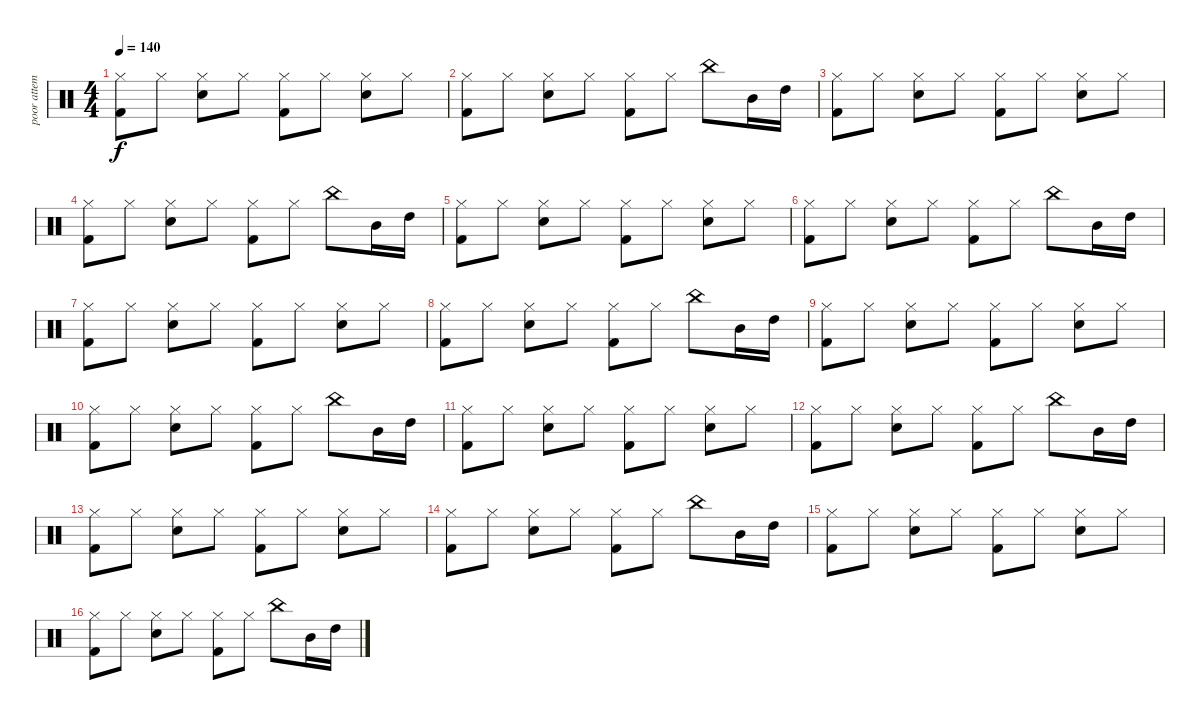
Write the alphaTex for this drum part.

\track ("poor attempt at zac's part" "poor attem") {instrument percussion}
\staff {score}
\articulation defaults
\ts (4 4)
\tempo 140
\clef neutral
\ks c
("Kick (hit) 2" "Hi-Hat (closed)").8{dy f} "Hi-Hat (closed)".8 ("Snare (hit) 2" "Hi-Hat (closed)").8 "Hi-Hat (closed)".8 ("Kick (hit) 2" "Hi-Hat (closed)").8 "Hi-Hat (closed)".8 ("Snare (hit) 2" "Hi-Hat (closed)").8 "Hi-Hat (closed)".8 |
("Kick (hit) 2" "Hi-Hat (closed)").8 "Hi-Hat (closed)".8 ("Snare (hit) 2" "Hi-Hat (closed)").8 "Hi-Hat (closed)".8 ("Kick (hit) 2" "Hi-Hat (closed)").8 "Hi-Hat (closed)".8 "China (hit)".8 "Mid Tom (hit)".16 "High Tom (hit)".16 |
("Kick (hit) 2" "Hi-Hat (closed)").8 "Hi-Hat (closed)".8 ("Snare (hit) 2" "Hi-Hat (closed)").8 "Hi-Hat (closed)".8 ("Kick (hit) 2" "Hi-Hat (closed)").8 "Hi-Hat (closed)".8 ("Snare (hit) 2" "Hi-Hat (closed)").8 "Hi-Hat (closed)".8 |
("Kick (hit) 2" "Hi-Hat (closed)").8 "Hi-Hat (closed)".8 ("Snare (hit) 2" "Hi-Hat (closed)").8 "Hi-Hat (closed)".8 ("Kick (hit) 2" "Hi-Hat (closed)").8 "Hi-Hat (closed)".8 "China (hit)".8 "Mid Tom (hit)".16 "High Tom (hit)".16 |
("Kick (hit) 2" "Hi-Hat (closed)").8 "Hi-Hat (closed)".8 ("Snare (hit) 2" "Hi-Hat (closed)").8 "Hi-Hat (closed)".8 ("Kick (hit) 2" "Hi-Hat (closed)").8 "Hi-Hat (closed)".8 ("Snare (hit) 2" "Hi-Hat (closed)").8 "Hi-Hat (closed)".8 |
("Kick (hit) 2" "Hi-Hat (closed)").8 "Hi-Hat (closed)".8 ("Snare (hit) 2" "Hi-Hat (closed)").8 "Hi-Hat (closed)".8 ("Kick (hit) 2" "Hi-Hat (closed)").8 "Hi-Hat (closed)".8 "China (hit)".8 "Mid Tom (hit)".16 "High Tom (hit)".16 |
("Kick (hit) 2" "Hi-Hat (closed)").8 "Hi-Hat (closed)".8 ("Snare (hit) 2" "Hi-Hat (closed)").8 "Hi-Hat (closed)".8 ("Kick (hit) 2" "Hi-Hat (closed)").8 "Hi-Hat (closed)".8 ("Snare (hit) 2" "Hi-Hat (closed)").8 "Hi-Hat (closed)".8 |
("Kick (hit) 2" "Hi-Hat (closed)").8 "Hi-Hat (closed)".8 ("Snare (hit) 2" "Hi-Hat (closed)").8 "Hi-Hat (closed)".8 ("Kick (hit) 2" "Hi-Hat (closed)").8 "Hi-Hat (closed)".8 "China (hit)".8 "Mid Tom (hit)".16 "High Tom (hit)".16 |
("Kick (hit) 2" "Hi-Hat (closed)").8 "Hi-Hat (closed)".8 ("Snare (hit) 2" "Hi-Hat (closed)").8 "Hi-Hat (closed)".8 ("Kick (hit) 2" "Hi-Hat (closed)").8 "Hi-Hat (closed)".8 ("Snare (hit) 2" "Hi-Hat (closed)").8 "Hi-Hat (closed)".8 |
("Kick (hit) 2" "Hi-Hat (closed)").8 "Hi-Hat (closed)".8 ("Snare (hit) 2" "Hi-Hat (closed)").8 "Hi-Hat (closed)".8 ("Kick (hit) 2" "Hi-Hat (closed)").8 "Hi-Hat (closed)".8 "China (hit)".8 "Mid Tom (hit)".16 "High Tom (hit)".16 |
("Kick (hit) 2" "Hi-Hat (closed)").8 "Hi-Hat (closed)".8 ("Snare (hit) 2" "Hi-Hat (closed)").8 "Hi-Hat (closed)".8 ("Kick (hit) 2" "Hi-Hat (closed)").8 "Hi-Hat (closed)".8 ("Snare (hit) 2" "Hi-Hat (closed)").8 "Hi-Hat (closed)".8 |
("Kick (hit) 2" "Hi-Hat (closed)").8 "Hi-Hat (closed)".8 ("Snare (hit) 2" "Hi-Hat (closed)").8 "Hi-Hat (closed)".8 ("Kick (hit) 2" "Hi-Hat (closed)").8 "Hi-Hat (closed)".8 "China (hit)".8 "Mid Tom (hit)".16 "High Tom (hit)".16 |
("Kick (hit) 2" "Hi-Hat (closed)").8 "Hi-Hat (closed)".8 ("Snare (hit) 2" "Hi-Hat (closed)").8 "Hi-Hat (closed)".8 ("Kick (hit) 2" "Hi-Hat (closed)").8 "Hi-Hat (closed)".8 ("Snare (hit) 2" "Hi-Hat (closed)").8 "Hi-Hat (closed)".8 |
("Kick (hit) 2" "Hi-Hat (closed)").8 "Hi-Hat (closed)".8 ("Snare (hit) 2" "Hi-Hat (closed)").8 "Hi-Hat (closed)".8 ("Kick (hit) 2" "Hi-Hat (closed)").8 "Hi-Hat (closed)".8 "China (hit)".8 "Mid Tom (hit)".16 "High Tom (hit)".16 |
("Kick (hit) 2" "Hi-Hat (closed)").8 "Hi-Hat (closed)".8 ("Snare (hit) 2" "Hi-Hat (closed)").8 "Hi-Hat (closed)".8 ("Kick (hit) 2" "Hi-Hat (closed)").8 "Hi-Hat (closed)".8 ("Snare (hit) 2" "Hi-Hat (closed)").8 "Hi-Hat (closed)".8 |
("Kick (hit) 2" "Hi-Hat (closed)").8 "Hi-Hat (closed)".8 ("Snare (hit) 2" "Hi-Hat (closed)").8 "Hi-Hat (closed)".8 ("Kick (hit) 2" "Hi-Hat (closed)").8 "Hi-Hat (closed)".8 "China (hit)".8 "Mid Tom (hit)".16 "High Tom (hit)".16
